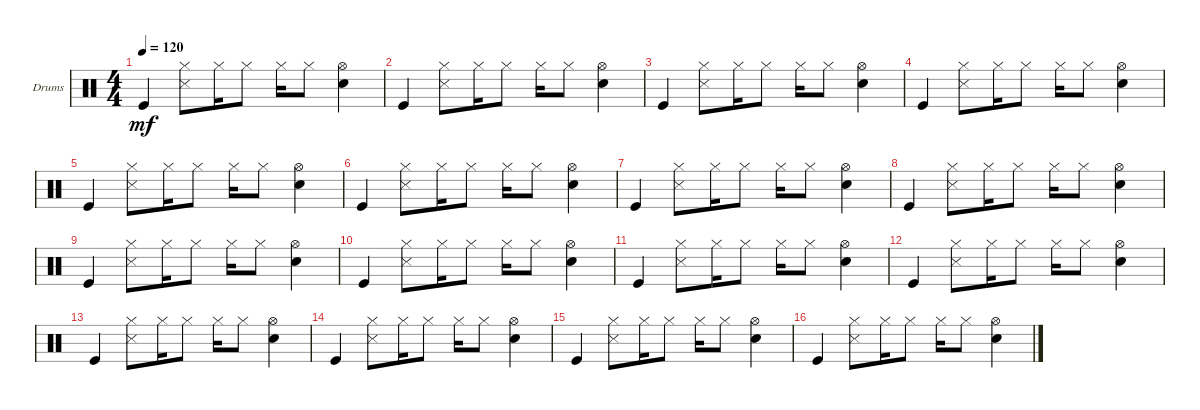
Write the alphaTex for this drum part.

\defaultSystemsLayout 4
\bracketExtendMode groupsimilarinstruments
\firstSystemTrackNameOrientation horizontal
\otherSystemsTrackNameOrientation horizontal
\track ("Drumkit" "Drums") {instrument percussion}
\staff {score}
\articulation defaults
\ts (4 4)
\tempo 120
\clef neutral
\ks c "Kick (hit)".4{dy mf}
("Snare (side stick) 3" "Hi-Hat (closed)").8 "Hi-Hat (closed)".16 "Hi-Hat (closed)".8 "Hi-Hat (closed)".16 "Hi-Hat (closed)".8 ("Snare (hit) 2" "Hi-Hat (open)").4 |
"Kick (hit)".4 ("Snare (side stick) 3" "Hi-Hat (closed)").8 "Hi-Hat (closed)".16 "Hi-Hat (closed)".8 "Hi-Hat (closed)".16 "Hi-Hat (closed)".8 ("Snare (hit) 2" "Hi-Hat (open)").4 |
"Kick (hit)".4 ("Snare (side stick) 3" "Hi-Hat (closed)").8 "Hi-Hat (closed)".16 "Hi-Hat (closed)".8 "Hi-Hat (closed)".16 "Hi-Hat (closed)".8 ("Snare (hit) 2" "Hi-Hat (open)").4 |
"Kick (hit)".4 ("Snare (side stick) 3" "Hi-Hat (closed)").8 "Hi-Hat (closed)".16 "Hi-Hat (closed)".8 "Hi-Hat (closed)".16 "Hi-Hat (closed)".8 ("Snare (hit) 2" "Hi-Hat (open)").4 |
"Kick (hit)".4 ("Snare (side stick) 3" "Hi-Hat (closed)").8 "Hi-Hat (closed)".16 "Hi-Hat (closed)".8 "Hi-Hat (closed)".16 "Hi-Hat (closed)".8 ("Snare (hit) 2" "Hi-Hat (open)").4 |
"Kick (hit)".4 ("Snare (side stick) 3" "Hi-Hat (closed)").8 "Hi-Hat (closed)".16 "Hi-Hat (closed)".8 "Hi-Hat (closed)".16 "Hi-Hat (closed)".8 ("Snare (hit) 2" "Hi-Hat (open)").4 |
"Kick (hit)".4 ("Snare (side stick) 3" "Hi-Hat (closed)").8 "Hi-Hat (closed)".16 "Hi-Hat (closed)".8 "Hi-Hat (closed)".16 "Hi-Hat (closed)".8 ("Snare (hit) 2" "Hi-Hat (open)").4 |
"Kick (hit)".4 ("Snare (side stick) 3" "Hi-Hat (closed)").8 "Hi-Hat (closed)".16 "Hi-Hat (closed)".8 "Hi-Hat (closed)".16 "Hi-Hat (closed)".8 ("Snare (hit) 2" "Hi-Hat (open)").4 |
"Kick (hit)".4 ("Snare (side stick) 3" "Hi-Hat (closed)").8 "Hi-Hat (closed)".16 "Hi-Hat (closed)".8 "Hi-Hat (closed)".16 "Hi-Hat (closed)".8 ("Snare (hit) 2" "Hi-Hat (open)").4 |
"Kick (hit)".4 ("Snare (side stick) 3" "Hi-Hat (closed)").8 "Hi-Hat (closed)".16 "Hi-Hat (closed)".8 "Hi-Hat (closed)".16 "Hi-Hat (closed)".8 ("Snare (hit) 2" "Hi-Hat (open)").4 |
"Kick (hit)".4 ("Snare (side stick) 3" "Hi-Hat (closed)").8 "Hi-Hat (closed)".16 "Hi-Hat (closed)".8 "Hi-Hat (closed)".16 "Hi-Hat (closed)".8 ("Snare (hit) 2" "Hi-Hat (open)").4 |
"Kick (hit)".4 ("Snare (side stick) 3" "Hi-Hat (closed)").8 "Hi-Hat (closed)".16 "Hi-Hat (closed)".8 "Hi-Hat (closed)".16 "Hi-Hat (closed)".8 ("Snare (hit) 2" "Hi-Hat (open)").4 |
"Kick (hit)".4 ("Snare (side stick) 3" "Hi-Hat (closed)").8 "Hi-Hat (closed)".16 "Hi-Hat (closed)".8 "Hi-Hat (closed)".16 "Hi-Hat (closed)".8 ("Snare (hit) 2" "Hi-Hat (open)").4 |
"Kick (hit)".4 ("Snare (side stick) 3" "Hi-Hat (closed)").8 "Hi-Hat (closed)".16 "Hi-Hat (closed)".8 "Hi-Hat (closed)".16 "Hi-Hat (closed)".8 ("Snare (hit) 2" "Hi-Hat (open)").4 |
"Kick (hit)".4 ("Snare (side stick) 3" "Hi-Hat (closed)").8 "Hi-Hat (closed)".16 "Hi-Hat (closed)".8 "Hi-Hat (closed)".16 "Hi-Hat (closed)".8 ("Snare (hit) 2" "Hi-Hat (open)").4 |
"Kick (hit)".4 ("Snare (side stick) 3" "Hi-Hat (closed)").8 "Hi-Hat (closed)".16 "Hi-Hat (closed)".8 "Hi-Hat (closed)".16 "Hi-Hat (closed)".8 ("Snare (hit) 2" "Hi-Hat (open)").4
